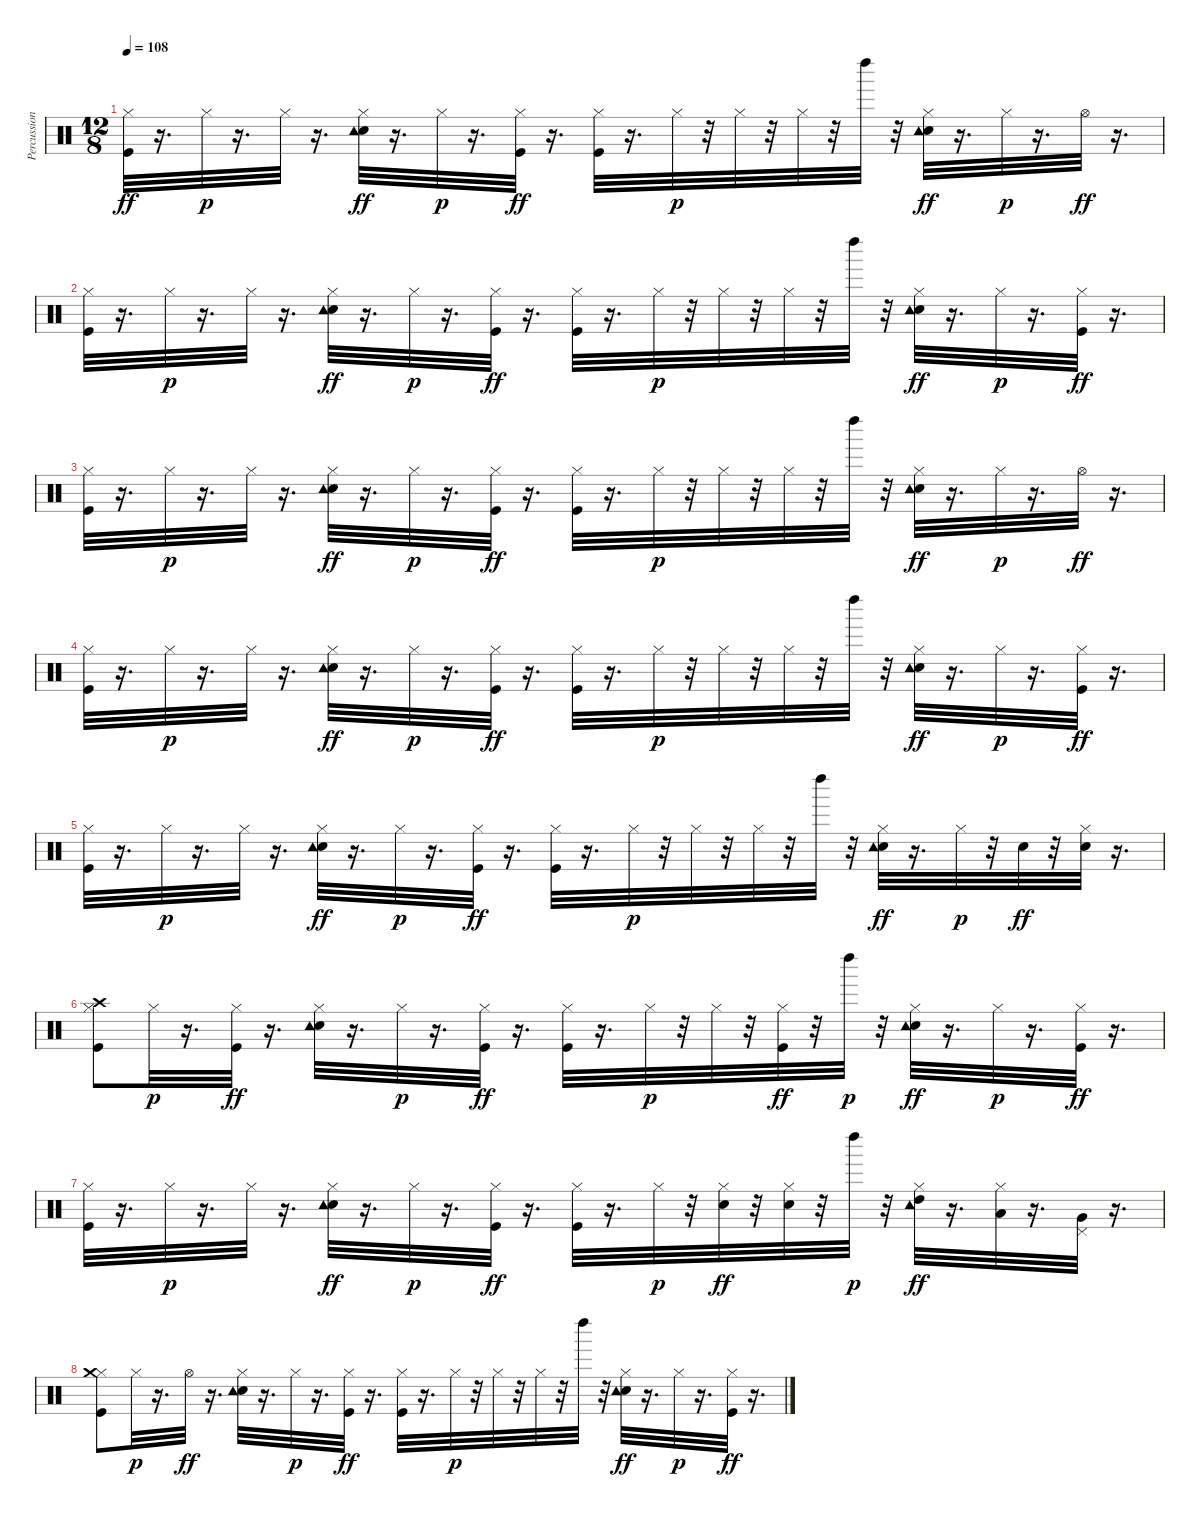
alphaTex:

\track ("Percussion" "Percussion") {instrument percussion}
\staff {score}
\articulation defaults
\ts (12 8)
\tempo 108
\clef neutral
\ks c
("Hi-Hat (closed)" "Kick (hit)").32{dy ff} r.16{d} "Hi-Hat (closed)".32{dy p} r.16{d} "Hi-Hat (closed)".32 r.16{d} ("Hi-Hat (closed)" "Snare (hit) 2" "Tambourine (hit)").32{dy ff} r.16{d} "Hi-Hat (closed)".32{dy p} r.16{d} ("Hi-Hat (closed)" "Kick (hit)").32{dy ff} r.16{d} ("Hi-Hat (closed)" "Kick (hit)").32 r.16{d} "Hi-Hat (closed)".32{dy p} r.32 "Hi-Hat (closed)".32 r.32 "Hi-Hat (closed)".32 r.32 "Left Maraca (hit)".32 r.32 ("Hi-Hat (closed)" "Snare (hit) 2" "Tambourine (hit)").32{dy ff} r.16{d} "Hi-Hat (closed)".32{dy p} r.16{d} "Hi-Hat (open)".32{dy ff} r.16{d} |
("Hi-Hat (closed)" "Kick (hit)").32 r.16{d} "Hi-Hat (closed)".32{dy p} r.16{d} "Hi-Hat (closed)".32 r.16{d} ("Hi-Hat (closed)" "Snare (hit) 2" "Tambourine (hit)").32{dy ff} r.16{d} "Hi-Hat (closed)".32{dy p} r.16{d} ("Hi-Hat (closed)" "Kick (hit)").32{dy ff} r.16{d} ("Hi-Hat (closed)" "Kick (hit)").32 r.16{d} "Hi-Hat (closed)".32{dy p} r.32 "Hi-Hat (closed)".32 r.32 "Hi-Hat (closed)".32 r.32 "Left Maraca (hit)".32 r.32 ("Hi-Hat (closed)" "Snare (hit) 2" "Tambourine (hit)").32{dy ff} r.16{d} "Hi-Hat (closed)".32{dy p} r.16{d} ("Hi-Hat (closed)" "Kick (hit)").32{dy ff} r.16{d} |
("Hi-Hat (closed)" "Kick (hit)").32 r.16{d} "Hi-Hat (closed)".32{dy p} r.16{d} "Hi-Hat (closed)".32 r.16{d} ("Hi-Hat (closed)" "Snare (hit) 2" "Tambourine (hit)").32{dy ff} r.16{d} "Hi-Hat (closed)".32{dy p} r.16{d} ("Hi-Hat (closed)" "Kick (hit)").32{dy ff} r.16{d} ("Hi-Hat (closed)" "Kick (hit)").32 r.16{d} "Hi-Hat (closed)".32{dy p} r.32 "Hi-Hat (closed)".32 r.32 "Hi-Hat (closed)".32 r.32 "Left Maraca (hit)".32 r.32 ("Hi-Hat (closed)" "Snare (hit) 2" "Tambourine (hit)").32{dy ff} r.16{d} "Hi-Hat (closed)".32{dy p} r.16{d} "Hi-Hat (open)".32{dy ff} r.16{d} |
("Hi-Hat (closed)" "Kick (hit)").32 r.16{d} "Hi-Hat (closed)".32{dy p} r.16{d} "Hi-Hat (closed)".32 r.16{d} ("Hi-Hat (closed)" "Snare (hit) 2" "Tambourine (hit)").32{dy ff} r.16{d} "Hi-Hat (closed)".32{dy p} r.16{d} ("Hi-Hat (closed)" "Kick (hit)").32{dy ff} r.16{d} ("Hi-Hat (closed)" "Kick (hit)").32 r.16{d} "Hi-Hat (closed)".32{dy p} r.32 "Hi-Hat (closed)".32 r.32 "Hi-Hat (closed)".32 r.32 "Left Maraca (hit)".32 r.32 ("Hi-Hat (closed)" "Snare (hit) 2" "Tambourine (hit)").32{dy ff} r.16{d} "Hi-Hat (closed)".32{dy p} r.16{d} ("Hi-Hat (closed)" "Kick (hit)").32{dy ff} r.16{d} |
("Hi-Hat (closed)" "Kick (hit)").32 r.16{d} "Hi-Hat (closed)".32{dy p} r.16{d} "Hi-Hat (closed)".32 r.16{d} ("Hi-Hat (closed)" "Snare (hit) 2" "Tambourine (hit)").32{dy ff} r.16{d} "Hi-Hat (closed)".32{dy p} r.16{d} ("Hi-Hat (closed)" "Kick (hit)").32{dy ff} r.16{d} ("Hi-Hat (closed)" "Kick (hit)").32 r.16{d} "Hi-Hat (closed)".32{dy p} r.32 "Hi-Hat (closed)".32 r.32 "Hi-Hat (closed)".32 r.32 "Left Maraca (hit)".32 r.32 ("Hi-Hat (closed)" "Snare (hit) 2" "Tambourine (hit)").32{dy ff} r.16{d} "Hi-Hat (closed)".32{dy p} r.32 "Snare (hit) 2".32{dy ff} r.32 ("Hi-Hat (closed)" "Snare (hit) 2").32 r.16{d} |
("Hi-Hat (closed)" "Kick (hit)" "Crash high (hit)").8 "Hi-Hat (closed)".32{dy p} r.16{d} ("Hi-Hat (closed)" "Kick (hit)").32{dy ff} r.16{d} ("Hi-Hat (closed)" "Snare (hit) 2" "Tambourine (hit)").32 r.16{d} "Hi-Hat (closed)".32{dy p} r.16{d} ("Hi-Hat (closed)" "Kick (hit)").32{dy ff} r.16{d} ("Hi-Hat (closed)" "Kick (hit)").32 r.16{d} "Hi-Hat (closed)".32{dy p} r.32 "Hi-Hat (closed)".32 r.32 ("Hi-Hat (closed)" "Kick (hit)").32{dy ff} r.32 "Left Maraca (hit)".32{dy p} r.32 ("Hi-Hat (closed)" "Snare (hit) 2" "Tambourine (hit)").32{dy ff} r.16{d} "Hi-Hat (closed)".32{dy p} r.16{d} ("Hi-Hat (closed)" "Kick (hit)").32{dy ff} r.16{d} |
("Hi-Hat (closed)" "Kick (hit)").32 r.16{d} "Hi-Hat (closed)".32{dy p} r.16{d} "Hi-Hat (closed)".32 r.16{d} ("Hi-Hat (closed)" "Snare (hit) 2" "Tambourine (hit)").32{dy ff} r.16{d} "Hi-Hat (closed)".32{dy p} r.16{d} ("Hi-Hat (closed)" "Kick (hit)").32{dy ff} r.16{d} ("Hi-Hat (closed)" "Kick (hit)").32 r.16{d} "Hi-Hat (closed)".32{dy p} r.32 ("Hi-Hat (closed)" "Snare (hit) 2").32{dy ff} r.32 ("Hi-Hat (closed)" "Snare (hit) 2").32 r.32 "Left Maraca (hit)".32{dy p} r.32 ("Hi-Hat (closed)" "Tambourine (hit)" "High Tom (hit)").32{dy ff} r.16{d} ("Hi-Hat (closed)" "Low Tom (hit)").32 r.16{d} ("Very Low Tom (hit)" "Pedal Hi-Hat (hit)").32 r.16{d} |
("Hi-Hat (closed)" "Kick (hit)" "Crash medium (hit)").8 "Hi-Hat (closed)".32{dy p} r.16{d} "Hi-Hat (open)".32{dy ff} r.16{d} ("Hi-Hat (closed)" "Snare (hit) 2" "Tambourine (hit)").32 r.16{d} "Hi-Hat (closed)".32{dy p} r.16{d} ("Hi-Hat (closed)" "Kick (hit)").32{dy ff} r.16{d} ("Hi-Hat (closed)" "Kick (hit)").32 r.16{d} "Hi-Hat (closed)".32{dy p} r.32 "Hi-Hat (closed)".32 r.32 "Hi-Hat (closed)".32 r.32 "Left Maraca (hit)".32 r.32 ("Hi-Hat (closed)" "Snare (hit) 2" "Tambourine (hit)").32{dy ff} r.16{d} "Hi-Hat (closed)".32{dy p} r.16{d} ("Hi-Hat (closed)" "Kick (hit)").32{dy ff} r.16{d}
